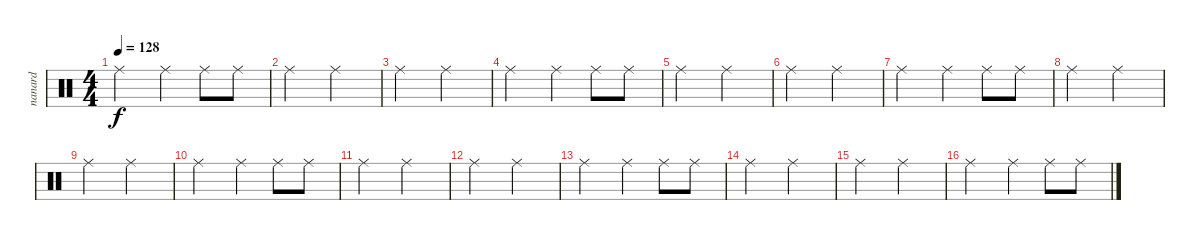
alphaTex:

\track ("nanard" "nanard") {instrument percussion}
\staff {score}
\articulation defaults
\ts (4 4)
\tempo 128
\clef neutral
\ks c "Ride (middle)".2{dy f} "Ride (middle)".4 "Ride (middle)".8 "Ride (middle)".8
|
"Ride (middle)".2 "Ride (middle)".2 |
"Ride (middle)".2 "Ride (middle)".2 |
"Ride (middle)".2 "Ride (middle)".4 "Ride (middle)".8 "Ride (middle)".8 |
"Ride (middle)".2 "Ride (middle)".2 |
"Ride (middle)".2 "Ride (middle)".2 |
"Ride (middle)".2 "Ride (middle)".4 "Ride (middle)".8 "Ride (middle)".8 |
"Ride (middle)".2 "Ride (middle)".2 |
"Ride (middle)".2 "Ride (middle)".2 |
"Ride (middle)".2 "Ride (middle)".4 "Ride (middle)".8 "Ride (middle)".8 |
"Ride (middle)".2 "Ride (middle)".2 |
"Ride (middle)".2 "Ride (middle)".2 |
"Ride (middle)".2 "Ride (middle)".4 "Ride (middle)".8 "Ride (middle)".8 |
"Ride (middle)".2 "Ride (middle)".2 |
"Ride (middle)".2 "Ride (middle)".2 |
"Ride (middle)".2 "Ride (middle)".4 "Ride (middle)".8 "Ride (middle)".8
